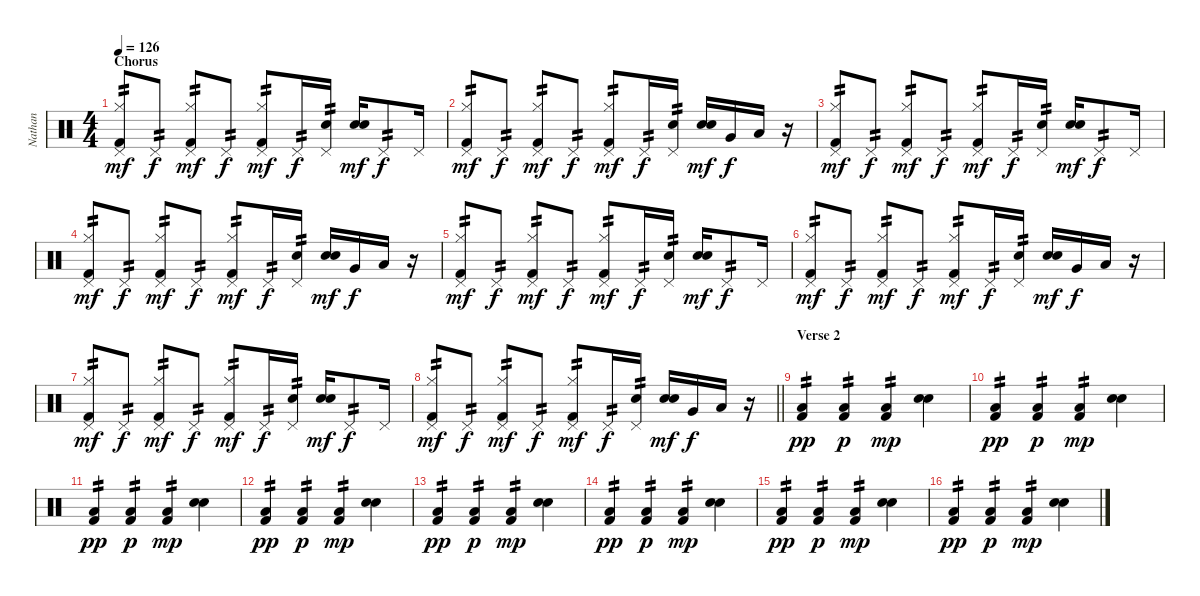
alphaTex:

\track ("Nathan" "Nathan") {instrument percussion}
\staff {score}
\articulation defaults
\ts (4 4)
\section ("" "Chorus")
\tempo 126
\clef neutral
\ks c
("Kick (hit) 2" "Hi-Hat (closed)" "Pedal Hi-Hat (hit)").8{tp 2 dy mf} "Pedal Hi-Hat (hit)".8{tp 2 dy f} ("Kick (hit) 2" "Hi-Hat (closed)" "Pedal Hi-Hat (hit)").8{tp 2 dy mf} "Pedal Hi-Hat (hit)".8{tp 2 dy f} ("Kick (hit) 2" "Hi-Hat (closed)" "Pedal Hi-Hat (hit)").8{tp 2 dy mf} "Pedal Hi-Hat (hit)".16{tp 2 dy f} ("Pedal Hi-Hat (hit)" "Snare (hit) 2").16{tp 2} ("Snare (hit) 2" "Electric Snare (hit)").16{dy mf} "Pedal Hi-Hat (hit)".8{tp 2 dy f} "Pedal Hi-Hat (hit)".16 |
("Kick (hit) 2" "Hi-Hat (closed)" "Pedal Hi-Hat (hit)").8{tp 2 dy mf} "Pedal Hi-Hat (hit)".8{tp 2 dy f} ("Kick (hit) 2" "Hi-Hat (closed)" "Pedal Hi-Hat (hit)").8{tp 2 dy mf} "Pedal Hi-Hat (hit)".8{tp 2 dy f} ("Kick (hit) 2" "Hi-Hat (closed)" "Pedal Hi-Hat (hit)").8{tp 2 dy mf} "Pedal Hi-Hat (hit)".16{tp 2 dy f} ("Pedal Hi-Hat (hit)" "Snare (hit) 2").16{tp 2} ("Snare (hit) 2" "Electric Snare (hit)").16{dy mf} "Very Low Tom (hit)".16{dy f} "Low Floor Tom (hit)".16 r.16 |
("Kick (hit) 2" "Hi-Hat (closed)" "Pedal Hi-Hat (hit)").8{tp 2 dy mf} "Pedal Hi-Hat (hit)".8{tp 2 dy f} ("Kick (hit) 2" "Hi-Hat (closed)" "Pedal Hi-Hat (hit)").8{tp 2 dy mf} "Pedal Hi-Hat (hit)".8{tp 2 dy f} ("Kick (hit) 2" "Hi-Hat (closed)" "Pedal Hi-Hat (hit)").8{tp 2 dy mf} "Pedal Hi-Hat (hit)".16{tp 2 dy f} ("Pedal Hi-Hat (hit)" "Snare (hit) 2").16{tp 2} ("Snare (hit) 2" "Electric Snare (hit)").16{dy mf} "Pedal Hi-Hat (hit)".8{tp 2 dy f} "Pedal Hi-Hat (hit)".16 |
("Kick (hit) 2" "Hi-Hat (closed)" "Pedal Hi-Hat (hit)").8{tp 2 dy mf} "Pedal Hi-Hat (hit)".8{tp 2 dy f} ("Kick (hit) 2" "Hi-Hat (closed)" "Pedal Hi-Hat (hit)").8{tp 2 dy mf} "Pedal Hi-Hat (hit)".8{tp 2 dy f} ("Kick (hit) 2" "Hi-Hat (closed)" "Pedal Hi-Hat (hit)").8{tp 2 dy mf} "Pedal Hi-Hat (hit)".16{tp 2 dy f} ("Pedal Hi-Hat (hit)" "Snare (hit) 2").16{tp 2} ("Snare (hit) 2" "Electric Snare (hit)").16{dy mf} "Very Low Tom (hit)".16{dy f} "Low Floor Tom (hit)".16 r.16 |
("Kick (hit) 2" "Hi-Hat (closed)" "Pedal Hi-Hat (hit)").8{tp 2 dy mf} "Pedal Hi-Hat (hit)".8{tp 2 dy f} ("Kick (hit) 2" "Hi-Hat (closed)" "Pedal Hi-Hat (hit)").8{tp 2 dy mf} "Pedal Hi-Hat (hit)".8{tp 2 dy f} ("Kick (hit) 2" "Hi-Hat (closed)" "Pedal Hi-Hat (hit)").8{tp 2 dy mf} "Pedal Hi-Hat (hit)".16{tp 2 dy f} ("Pedal Hi-Hat (hit)" "Snare (hit) 2").16{tp 2} ("Snare (hit) 2" "Electric Snare (hit)").16{dy mf} "Pedal Hi-Hat (hit)".8{tp 2 dy f} "Pedal Hi-Hat (hit)".16 |
("Kick (hit) 2" "Hi-Hat (closed)" "Pedal Hi-Hat (hit)").8{tp 2 dy mf} "Pedal Hi-Hat (hit)".8{tp 2 dy f} ("Kick (hit) 2" "Hi-Hat (closed)" "Pedal Hi-Hat (hit)").8{tp 2 dy mf} "Pedal Hi-Hat (hit)".8{tp 2 dy f} ("Kick (hit) 2" "Hi-Hat (closed)" "Pedal Hi-Hat (hit)").8{tp 2 dy mf} "Pedal Hi-Hat (hit)".16{tp 2 dy f} ("Pedal Hi-Hat (hit)" "Snare (hit) 2").16{tp 2} ("Snare (hit) 2" "Electric Snare (hit)").16{dy mf} "Very Low Tom (hit)".16{dy f} "Low Floor Tom (hit)".16 r.16 |
("Kick (hit) 2" "Hi-Hat (closed)" "Pedal Hi-Hat (hit)").8{tp 2 dy mf} "Pedal Hi-Hat (hit)".8{tp 2 dy f} ("Kick (hit) 2" "Hi-Hat (closed)" "Pedal Hi-Hat (hit)").8{tp 2 dy mf} "Pedal Hi-Hat (hit)".8{tp 2 dy f} ("Kick (hit) 2" "Hi-Hat (closed)" "Pedal Hi-Hat (hit)").8{tp 2 dy mf} "Pedal Hi-Hat (hit)".16{tp 2 dy f} ("Pedal Hi-Hat (hit)" "Snare (hit) 2").16{tp 2} ("Snare (hit) 2" "Electric Snare (hit)").16{dy mf} "Pedal Hi-Hat (hit)".8{tp 2 dy f} "Pedal Hi-Hat (hit)".16 |
\barLineRight lightlight
("Kick (hit) 2" "Hi-Hat (closed)" "Pedal Hi-Hat (hit)").8{tp 2 dy mf} "Pedal Hi-Hat (hit)".8{tp 2 dy f} ("Kick (hit) 2" "Hi-Hat (closed)" "Pedal Hi-Hat (hit)").8{tp 2 dy mf} "Pedal Hi-Hat (hit)".8{tp 2 dy f} ("Kick (hit) 2" "Hi-Hat (closed)" "Pedal Hi-Hat (hit)").8{tp 2 dy mf} "Pedal Hi-Hat (hit)".16{tp 2 dy f} ("Pedal Hi-Hat (hit)" "Snare (hit) 2").16{tp 2} ("Snare (hit) 2" "Electric Snare (hit)").16{dy mf} "Very Low Tom (hit)".16{dy f} "Low Floor Tom (hit)".16 r.16 |
\section ("" "Verse 2")
("Kick (hit) 2" "Low Tom (hit)").4{tp 2 dy pp} ("Kick (hit) 2" "Low Tom (hit)").4{tp 2 dy p} ("Kick (hit) 2" "Low Tom (hit)").4{tp 2 dy mp} ("Snare (hit) 2" "Electric Snare (hit)").4 |
("Kick (hit) 2" "Low Tom (hit)").4{tp 2 dy pp} ("Kick (hit) 2" "Low Tom (hit)").4{tp 2 dy p} ("Kick (hit) 2" "Low Tom (hit)").4{tp 2 dy mp} ("Snare (hit) 2" "Electric Snare (hit)").4 |
("Kick (hit) 2" "Low Tom (hit)").4{tp 2 dy pp} ("Kick (hit) 2" "Low Tom (hit)").4{tp 2 dy p} ("Kick (hit) 2" "Low Tom (hit)").4{tp 2 dy mp} ("Snare (hit) 2" "Electric Snare (hit)").4 |
("Kick (hit) 2" "Low Tom (hit)").4{tp 2 dy pp} ("Kick (hit) 2" "Low Tom (hit)").4{tp 2 dy p} ("Kick (hit) 2" "Low Tom (hit)").4{tp 2 dy mp} ("Snare (hit) 2" "Electric Snare (hit)").4 |
("Kick (hit) 2" "Low Tom (hit)").4{tp 2 dy pp} ("Kick (hit) 2" "Low Tom (hit)").4{tp 2 dy p} ("Kick (hit) 2" "Low Tom (hit)").4{tp 2 dy mp} ("Snare (hit) 2" "Electric Snare (hit)").4 |
("Kick (hit) 2" "Low Tom (hit)").4{tp 2 dy pp} ("Kick (hit) 2" "Low Tom (hit)").4{tp 2 dy p} ("Kick (hit) 2" "Low Tom (hit)").4{tp 2 dy mp} ("Snare (hit) 2" "Electric Snare (hit)").4 |
("Kick (hit) 2" "Low Tom (hit)").4{tp 2 dy pp} ("Kick (hit) 2" "Low Tom (hit)").4{tp 2 dy p} ("Kick (hit) 2" "Low Tom (hit)").4{tp 2 dy mp} ("Snare (hit) 2" "Electric Snare (hit)").4 |
("Kick (hit) 2" "Low Tom (hit)").4{tp 2 dy pp} ("Kick (hit) 2" "Low Tom (hit)").4{tp 2 dy p} ("Kick (hit) 2" "Low Tom (hit)").4{tp 2 dy mp} ("Snare (hit) 2" "Electric Snare (hit)").4
